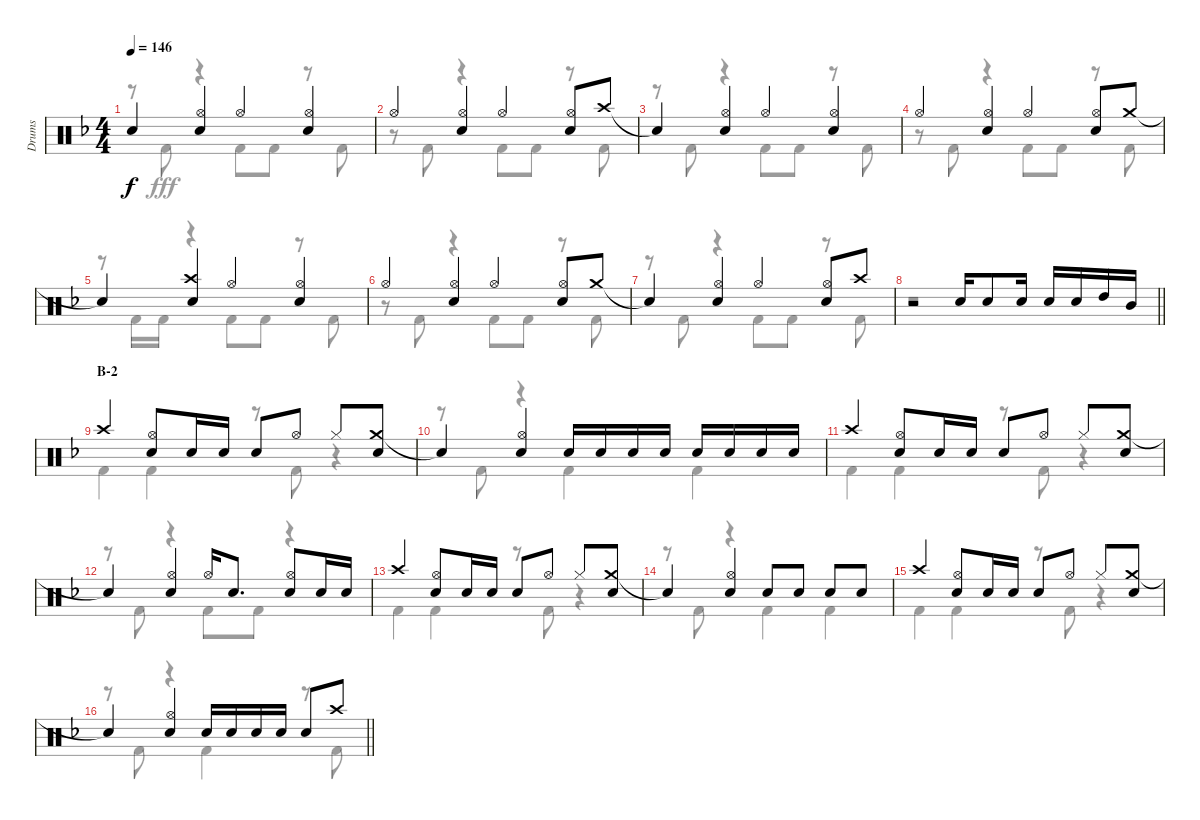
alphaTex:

\track ("Drums" "Drums") {instrument percussion}
\staff {score}
\articulation defaults
\voice
\ts (4 4)
\tempo 146
\clef neutral
\ks f "Snare (hit)"{t}.4{dy f}
("Hi-Hat (open)" "Snare (hit) 2").4 "Hi-Hat (open)".4 ("Hi-Hat (open)" "Snare (hit) 2").4 |
"Hi-Hat (open)".4 ("Hi-Hat (open)" "Snare (hit) 2").4 "Hi-Hat (open)".4 ("Hi-Hat (open)" "Snare (hit) 2").8 "Crash high (hit)".8 |
"Snare (hit)"{t}.4 ("Hi-Hat (open)" "Snare (hit) 2").4 "Hi-Hat (open)".4 ("Hi-Hat (open)" "Snare (hit) 2").4 |
"Hi-Hat (open)".4 ("Hi-Hat (open)" "Snare (hit) 2").4 "Hi-Hat (open)".4 ("Hi-Hat (open)" "Snare (hit) 2").8 "Crash medium (hit)".8 |
"Snare (hit)"{t}.4 ("Crash high (hit)" "Snare (hit) 2").4 "Hi-Hat (open)".4 ("Hi-Hat (open)" "Snare (hit) 2").4 |
"Hi-Hat (open)".4 ("Hi-Hat (open)" "Snare (hit) 2").4 "Hi-Hat (open)".4 ("Hi-Hat (open)" "Snare (hit) 2").8 "Crash medium (hit)".8 |
"Snare (hit)"{t}.4 ("Hi-Hat (open)" "Snare (hit) 2").4 "Hi-Hat (open)".4 ("Hi-Hat (open)" "Snare (hit) 2").8 "Crash high (hit)".8 |
\barLineRight lightlight
r.2 "Snare (hit) 2".16 "Snare (hit) 2".8 "Snare (hit) 2".16 "Snare (hit) 2".16 "Snare (hit) 2".16 "High Tom (hit)".16 "Mid Tom (hit)".16 |
\section ("" "B-2")
"Crash high (hit)".4 ("Hi-Hat (open)" "Snare (hit) 2").8 "Snare (hit) 2".16 "Snare (hit) 2".16 "Snare (hit) 2".8 "Hi-Hat (open)".8 "Hi-Hat (closed)".8 ("Crash medium (hit)" "Snare (hit) 2").8 |
"Snare (hit)"{t}.4 ("Hi-Hat (open)" "Snare (hit) 2").4 "Snare (hit) 2".16 "Snare (hit) 2".16 "Snare (hit) 2".16 "Snare (hit) 2".16 "Snare (hit) 2".16 "Snare (hit) 2".16 "Snare (hit) 2".16 "Snare (hit) 2".16 |
"Crash high (hit)".4 ("Hi-Hat (open)" "Snare (hit) 2").8 "Snare (hit) 2".16 "Snare (hit) 2".16 "Snare (hit) 2".8 "Hi-Hat (open)".8 "Hi-Hat (closed)".8 ("Crash medium (hit)" "Snare (hit) 2").8 |
"Snare (hit)"{t}.4 ("Hi-Hat (open)" "Snare (hit) 2").4 "Hi-Hat (open)".16 "Snare (hit) 2".8{d} ("Hi-Hat (open)" "Snare (hit) 2").8 "Snare (hit) 2".16 "Snare (hit) 2".16 |
"Crash high (hit)".4 ("Hi-Hat (open)" "Snare (hit) 2").8 "Snare (hit) 2".16 "Snare (hit) 2".16 "Snare (hit) 2".8 "Hi-Hat (open)".8 "Hi-Hat (closed)".8 ("Crash medium (hit)" "Snare (hit) 2").8 |
"Snare (hit)"{t}.4 ("Hi-Hat (open)" "Snare (hit) 2").4 "Snare (hit) 2".8 "Snare (hit) 2".8 "Snare (hit) 2".8 "Snare (hit) 2".8 |
"Crash high (hit)".4 ("Hi-Hat (open)" "Snare (hit) 2").8 "Snare (hit) 2".16 "Snare (hit) 2".16 "Snare (hit) 2".8 "Hi-Hat (open)".8 "Hi-Hat (closed)".8 ("Crash medium (hit)" "Snare (hit) 2").8 |
\barLineRight lightlight "Snare (hit)"{t}.4
("Hi-Hat (open)" "Snare (hit) 2").4 "Snare (hit) 2".16 "Snare (hit) 2".16 "Snare (hit) 2".16 "Snare (hit) 2".16 "Snare (hit) 2".8 "Crash high (hit)".8
\voice
\clef neutral
\ottava regular
\simile none
\ks f
r.8{dy fff} "Kick (hit) 2".8 r.4 "Kick (hit) 2".8 "Kick (hit) 2".8 r.8 "Kick (hit) 2".8 |
r.8 "Kick (hit) 2".8 r.4 "Kick (hit) 2".8 "Kick (hit) 2".8 r.8 "Kick (hit) 2".8 |
r.8 "Kick (hit) 2".8 r.4 "Kick (hit) 2".8 "Kick (hit) 2".8 r.8 "Kick (hit) 2".8 |
r.8 "Kick (hit) 2".8 r.4 "Kick (hit) 2".8 "Kick (hit) 2".8 r.8 "Kick (hit) 2".8 |
r.8 "Kick (hit) 2".16 "Kick (hit) 2".16 r.4 "Kick (hit) 2".8 "Kick (hit) 2".8 r.8 "Kick (hit) 2".8 |
r.8 "Kick (hit) 2".8 r.4 "Kick (hit) 2".8 "Kick (hit) 2".8 r.8 "Kick (hit) 2".8 |
r.8 "Kick (hit) 2".8 r.4 "Kick (hit) 2".8 "Kick (hit) 2".8 r.8 "Kick (hit) 2".8 |
\barLineRight lightlight
r.1 |
"Kick (hit) 2".4 "Kick (hit) 2".4 r.8 "Kick (hit) 2".8 r.4 |
r.8 "Kick (hit) 2".8 r.4 "Kick (hit) 2".4 "Kick (hit) 2".4 |
"Kick (hit) 2".4 "Kick (hit) 2".4 r.8 "Kick (hit) 2".8 r.4 |
r.8 "Kick (hit) 2".8 r.4 "Kick (hit) 2".8 "Kick (hit) 2".8 r.4 |
"Kick (hit) 2".4 "Kick (hit) 2".4 r.8 "Kick (hit) 2".8 r.4 |
r.8 "Kick (hit) 2".8 r.4 "Kick (hit) 2".4 "Kick (hit) 2".4 |
"Kick (hit) 2".4 "Kick (hit) 2".4 r.8 "Kick (hit) 2".8 r.4 |
\barLineRight lightlight
r.8 "Kick (hit) 2".8 r.4 "Kick (hit) 2".4 r.8 "Kick (hit) 2".8
